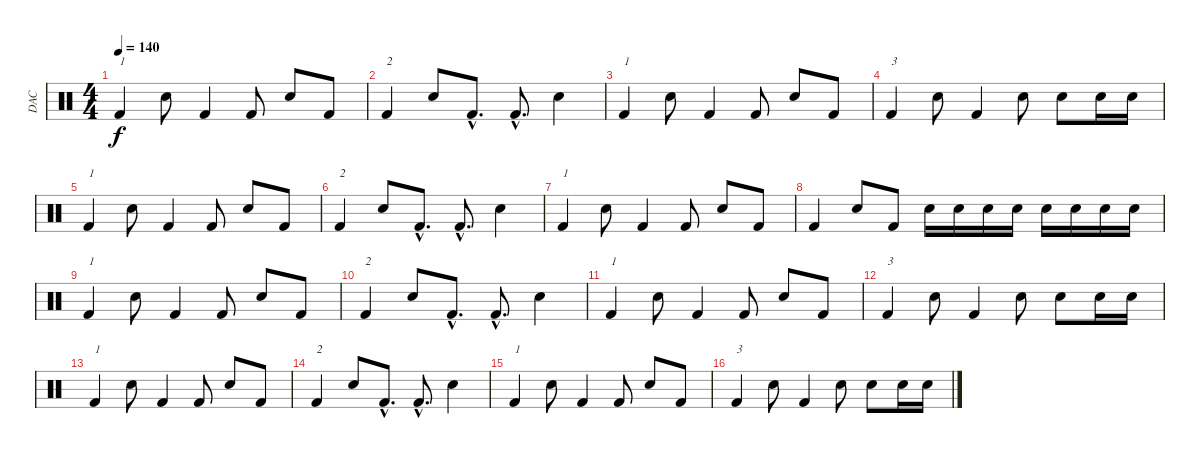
\track ("DAC" "DAC") {instrument percussion}
\staff {score}
\articulation defaults
\ts (4 4)
\tempo 140
\clef neutral
\ks c "Kick (hit) 2".4{txt "1" dy f} "Snare (hit) 2".8 "Kick (hit) 2".4 "Kick (hit) 2".8 "Snare (hit) 2".8 "Kick (hit) 2".8
|
"Kick (hit) 2".4{txt "2"} "Snare (hit) 2".8 "Kick (hit) 2"{hac}.8{d} "Kick (hit) 2"{hac}.8{d} "Snare (hit) 2".4 |
"Kick (hit) 2".4{txt "1"} "Snare (hit) 2".8 "Kick (hit) 2".4 "Kick (hit) 2".8 "Snare (hit) 2".8 "Kick (hit) 2".8 |
"Kick (hit) 2".4{txt "3"} "Snare (hit) 2".8 "Kick (hit) 2".4 "Snare (hit) 2".8 "Snare (hit) 2".8 "Snare (hit) 2".16 "Snare (hit) 2".16 |
"Kick (hit) 2".4{txt "1"} "Snare (hit) 2".8 "Kick (hit) 2".4 "Kick (hit) 2".8 "Snare (hit) 2".8 "Kick (hit) 2".8 |
"Kick (hit) 2".4{txt "2"} "Snare (hit) 2".8 "Kick (hit) 2"{hac}.8{d} "Kick (hit) 2"{hac}.8{d} "Snare (hit) 2".4 |
"Kick (hit) 2".4{txt "1"} "Snare (hit) 2".8 "Kick (hit) 2".4 "Kick (hit) 2".8 "Snare (hit) 2".8 "Kick (hit) 2".8 |
"Kick (hit) 2".4 "Snare (hit) 2".8 "Kick (hit) 2".8 "Snare (hit) 2".16 "Snare (hit) 2".16 "Snare (hit) 2".16 "Snare (hit) 2".16 "Snare (hit) 2".16 "Snare (hit) 2".16 "Snare (hit) 2".16 "Snare (hit) 2".16 |
"Kick (hit) 2".4{txt "1"} "Snare (hit) 2".8 "Kick (hit) 2".4 "Kick (hit) 2".8 "Snare (hit) 2".8 "Kick (hit) 2".8 |
"Kick (hit) 2".4{txt "2"} "Snare (hit) 2".8 "Kick (hit) 2"{hac}.8{d} "Kick (hit) 2"{hac}.8{d} "Snare (hit) 2".4 |
"Kick (hit) 2".4{txt "1"} "Snare (hit) 2".8 "Kick (hit) 2".4 "Kick (hit) 2".8 "Snare (hit) 2".8 "Kick (hit) 2".8 |
"Kick (hit) 2".4{txt "3"} "Snare (hit) 2".8 "Kick (hit) 2".4 "Snare (hit) 2".8 "Snare (hit) 2".8 "Snare (hit) 2".16 "Snare (hit) 2".16 |
"Kick (hit) 2".4{txt "1"} "Snare (hit) 2".8 "Kick (hit) 2".4 "Kick (hit) 2".8 "Snare (hit) 2".8 "Kick (hit) 2".8 |
"Kick (hit) 2".4{txt "2"} "Snare (hit) 2".8 "Kick (hit) 2"{hac}.8{d} "Kick (hit) 2"{hac}.8{d} "Snare (hit) 2".4 |
"Kick (hit) 2".4{txt "1"} "Snare (hit) 2".8 "Kick (hit) 2".4 "Kick (hit) 2".8 "Snare (hit) 2".8 "Kick (hit) 2".8 |
"Kick (hit) 2".4{txt "3"} "Snare (hit) 2".8 "Kick (hit) 2".4 "Snare (hit) 2".8 "Snare (hit) 2".8 "Snare (hit) 2".16 "Snare (hit) 2".16
